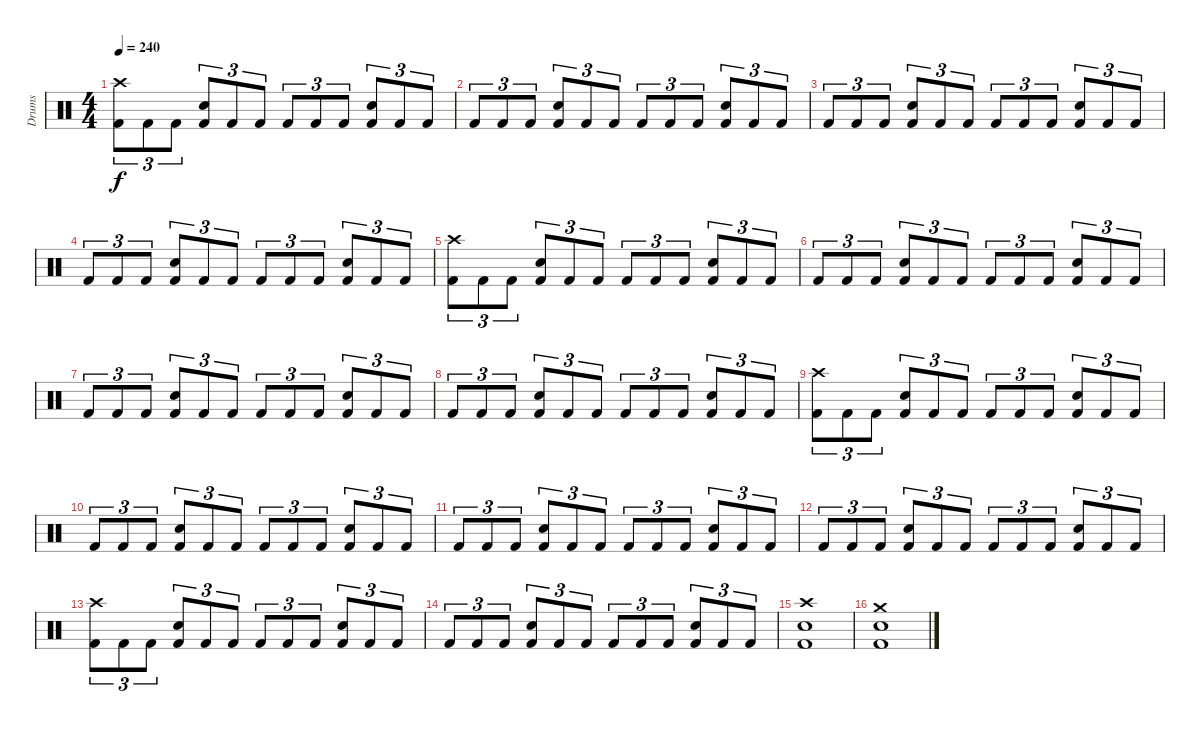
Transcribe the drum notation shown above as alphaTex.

\track ("Drums" "Drums") {instrument percussion}
\staff {score}
\articulation defaults
\ts (4 4)
\tempo 240
\clef neutral
\ks c
("Kick (hit) 2" "Crash high (hit)").8{tu (3 2) dy f} "Kick (hit) 2".8{tu (3 2)} "Kick (hit) 2".8{tu (3 2)} ("Kick (hit) 2" "Electric Snare (hit)").8{tu (3 2)} "Kick (hit) 2".8{tu (3 2)} "Kick (hit) 2".8{tu (3 2)} "Kick (hit) 2".8{tu (3 2)} "Kick (hit) 2".8{tu (3 2)} "Kick (hit) 2".8{tu (3 2)} ("Kick (hit) 2" "Electric Snare (hit)").8{tu (3 2)} "Kick (hit) 2".8{tu (3 2)} "Kick (hit) 2".8{tu (3 2)} |
"Kick (hit) 2".8{tu (3 2)} "Kick (hit) 2".8{tu (3 2)} "Kick (hit) 2".8{tu (3 2)} ("Kick (hit) 2" "Electric Snare (hit)").8{tu (3 2)} "Kick (hit) 2".8{tu (3 2)} "Kick (hit) 2".8{tu (3 2)} "Kick (hit) 2".8{tu (3 2)} "Kick (hit) 2".8{tu (3 2)} "Kick (hit) 2".8{tu (3 2)} ("Kick (hit) 2" "Electric Snare (hit)").8{tu (3 2)} "Kick (hit) 2".8{tu (3 2)} "Kick (hit) 2".8{tu (3 2)} |
"Kick (hit) 2".8{tu (3 2)} "Kick (hit) 2".8{tu (3 2)} "Kick (hit) 2".8{tu (3 2)} ("Kick (hit) 2" "Electric Snare (hit)").8{tu (3 2)} "Kick (hit) 2".8{tu (3 2)} "Kick (hit) 2".8{tu (3 2)} "Kick (hit) 2".8{tu (3 2)} "Kick (hit) 2".8{tu (3 2)} "Kick (hit) 2".8{tu (3 2)} ("Kick (hit) 2" "Electric Snare (hit)").8{tu (3 2)} "Kick (hit) 2".8{tu (3 2)} "Kick (hit) 2".8{tu (3 2)} |
"Kick (hit) 2".8{tu (3 2)} "Kick (hit) 2".8{tu (3 2)} "Kick (hit) 2".8{tu (3 2)} ("Kick (hit) 2" "Electric Snare (hit)").8{tu (3 2)} "Kick (hit) 2".8{tu (3 2)} "Kick (hit) 2".8{tu (3 2)} "Kick (hit) 2".8{tu (3 2)} "Kick (hit) 2".8{tu (3 2)} "Kick (hit) 2".8{tu (3 2)} ("Kick (hit) 2" "Electric Snare (hit)").8{tu (3 2)} "Kick (hit) 2".8{tu (3 2)} "Kick (hit) 2".8{tu (3 2)} |
("Kick (hit) 2" "Crash high (hit)").8{tu (3 2)} "Kick (hit) 2".8{tu (3 2)} "Kick (hit) 2".8{tu (3 2)} ("Kick (hit) 2" "Electric Snare (hit)").8{tu (3 2)} "Kick (hit) 2".8{tu (3 2)} "Kick (hit) 2".8{tu (3 2)} "Kick (hit) 2".8{tu (3 2)} "Kick (hit) 2".8{tu (3 2)} "Kick (hit) 2".8{tu (3 2)} ("Kick (hit) 2" "Electric Snare (hit)").8{tu (3 2)} "Kick (hit) 2".8{tu (3 2)} "Kick (hit) 2".8{tu (3 2)} |
"Kick (hit) 2".8{tu (3 2)} "Kick (hit) 2".8{tu (3 2)} "Kick (hit) 2".8{tu (3 2)} ("Kick (hit) 2" "Electric Snare (hit)").8{tu (3 2)} "Kick (hit) 2".8{tu (3 2)} "Kick (hit) 2".8{tu (3 2)} "Kick (hit) 2".8{tu (3 2)} "Kick (hit) 2".8{tu (3 2)} "Kick (hit) 2".8{tu (3 2)} ("Kick (hit) 2" "Electric Snare (hit)").8{tu (3 2)} "Kick (hit) 2".8{tu (3 2)} "Kick (hit) 2".8{tu (3 2)} |
"Kick (hit) 2".8{tu (3 2)} "Kick (hit) 2".8{tu (3 2)} "Kick (hit) 2".8{tu (3 2)} ("Kick (hit) 2" "Electric Snare (hit)").8{tu (3 2)} "Kick (hit) 2".8{tu (3 2)} "Kick (hit) 2".8{tu (3 2)} "Kick (hit) 2".8{tu (3 2)} "Kick (hit) 2".8{tu (3 2)} "Kick (hit) 2".8{tu (3 2)} ("Kick (hit) 2" "Electric Snare (hit)").8{tu (3 2)} "Kick (hit) 2".8{tu (3 2)} "Kick (hit) 2".8{tu (3 2)} |
"Kick (hit) 2".8{tu (3 2)} "Kick (hit) 2".8{tu (3 2)} "Kick (hit) 2".8{tu (3 2)} ("Kick (hit) 2" "Electric Snare (hit)").8{tu (3 2)} "Kick (hit) 2".8{tu (3 2)} "Kick (hit) 2".8{tu (3 2)} "Kick (hit) 2".8{tu (3 2)} "Kick (hit) 2".8{tu (3 2)} "Kick (hit) 2".8{tu (3 2)} ("Kick (hit) 2" "Electric Snare (hit)").8{tu (3 2)} "Kick (hit) 2".8{tu (3 2)} "Kick (hit) 2".8{tu (3 2)} |
("Kick (hit) 2" "Crash high (hit)").8{tu (3 2)} "Kick (hit) 2".8{tu (3 2)} "Kick (hit) 2".8{tu (3 2)} ("Kick (hit) 2" "Electric Snare (hit)").8{tu (3 2)} "Kick (hit) 2".8{tu (3 2)} "Kick (hit) 2".8{tu (3 2)} "Kick (hit) 2".8{tu (3 2)} "Kick (hit) 2".8{tu (3 2)} "Kick (hit) 2".8{tu (3 2)} ("Kick (hit) 2" "Electric Snare (hit)").8{tu (3 2)} "Kick (hit) 2".8{tu (3 2)} "Kick (hit) 2".8{tu (3 2)} |
"Kick (hit) 2".8{tu (3 2)} "Kick (hit) 2".8{tu (3 2)} "Kick (hit) 2".8{tu (3 2)} ("Kick (hit) 2" "Electric Snare (hit)").8{tu (3 2)} "Kick (hit) 2".8{tu (3 2)} "Kick (hit) 2".8{tu (3 2)} "Kick (hit) 2".8{tu (3 2)} "Kick (hit) 2".8{tu (3 2)} "Kick (hit) 2".8{tu (3 2)} ("Kick (hit) 2" "Electric Snare (hit)").8{tu (3 2)} "Kick (hit) 2".8{tu (3 2)} "Kick (hit) 2".8{tu (3 2)} |
"Kick (hit) 2".8{tu (3 2)} "Kick (hit) 2".8{tu (3 2)} "Kick (hit) 2".8{tu (3 2)} ("Kick (hit) 2" "Electric Snare (hit)").8{tu (3 2)} "Kick (hit) 2".8{tu (3 2)} "Kick (hit) 2".8{tu (3 2)} "Kick (hit) 2".8{tu (3 2)} "Kick (hit) 2".8{tu (3 2)} "Kick (hit) 2".8{tu (3 2)} ("Kick (hit) 2" "Electric Snare (hit)").8{tu (3 2)} "Kick (hit) 2".8{tu (3 2)} "Kick (hit) 2".8{tu (3 2)} |
"Kick (hit) 2".8{tu (3 2)} "Kick (hit) 2".8{tu (3 2)} "Kick (hit) 2".8{tu (3 2)} ("Kick (hit) 2" "Electric Snare (hit)").8{tu (3 2)} "Kick (hit) 2".8{tu (3 2)} "Kick (hit) 2".8{tu (3 2)} "Kick (hit) 2".8{tu (3 2)} "Kick (hit) 2".8{tu (3 2)} "Kick (hit) 2".8{tu (3 2)} ("Kick (hit) 2" "Electric Snare (hit)").8{tu (3 2)} "Kick (hit) 2".8{tu (3 2)} "Kick (hit) 2".8{tu (3 2)} |
("Kick (hit) 2" "Crash high (hit)").8{tu (3 2)} "Kick (hit) 2".8{tu (3 2)} "Kick (hit) 2".8{tu (3 2)} ("Kick (hit) 2" "Electric Snare (hit)").8{tu (3 2)} "Kick (hit) 2".8{tu (3 2)} "Kick (hit) 2".8{tu (3 2)} "Kick (hit) 2".8{tu (3 2)} "Kick (hit) 2".8{tu (3 2)} "Kick (hit) 2".8{tu (3 2)} ("Kick (hit) 2" "Electric Snare (hit)").8{tu (3 2)} "Kick (hit) 2".8{tu (3 2)} "Kick (hit) 2".8{tu (3 2)} |
"Kick (hit) 2".8{tu (3 2)} "Kick (hit) 2".8{tu (3 2)} "Kick (hit) 2".8{tu (3 2)} ("Kick (hit) 2" "Electric Snare (hit)").8{tu (3 2)} "Kick (hit) 2".8{tu (3 2)} "Kick (hit) 2".8{tu (3 2)} "Kick (hit) 2".8{tu (3 2)} "Kick (hit) 2".8{tu (3 2)} "Kick (hit) 2".8{tu (3 2)} ("Kick (hit) 2" "Electric Snare (hit)").8{tu (3 2)} "Kick (hit) 2".8{tu (3 2)} "Kick (hit) 2".8{tu (3 2)} |
("Kick (hit) 2" "Electric Snare (hit)" "Crash high (hit)").1 |
("Kick (hit) 2" "Electric Snare (hit)" "Crash medium (hit)").1
